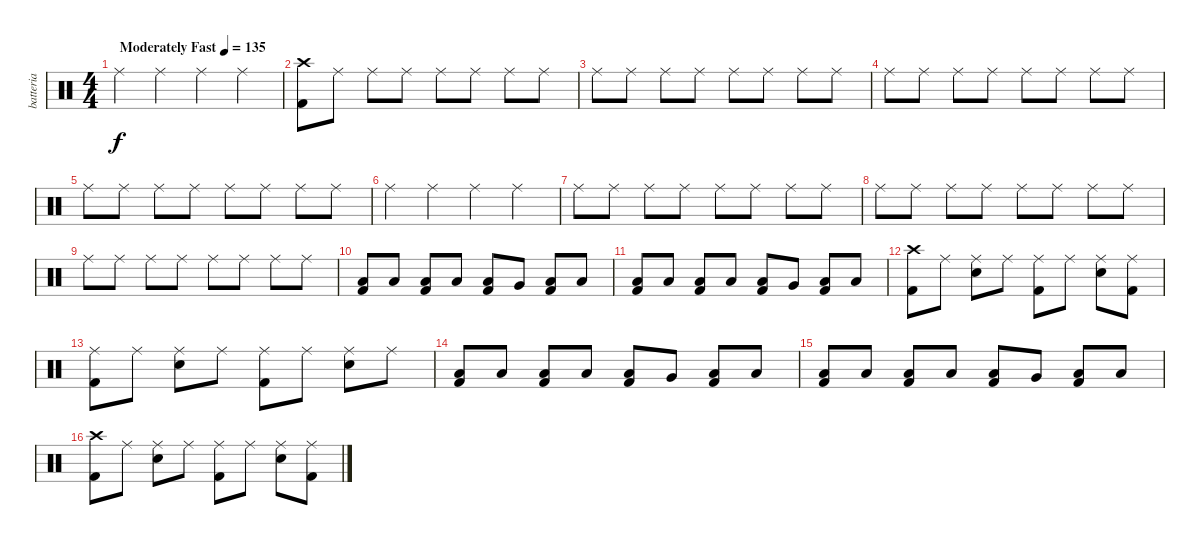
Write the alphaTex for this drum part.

\track ("batteria" "batteria") {instrument percussion}
\staff {score}
\articulation defaults
\ts (4 4)
\tempo (135 "Moderately Fast")
\clef neutral
\ks c "Ride (middle)".4{dy f} "Ride (middle)".4 "Ride (middle)".4 "Ride (middle)".4
|
("Crash high (hit)" "Kick (hit) 2").8 "Ride (middle)".8 "Ride (middle)".8 "Ride (middle)".8 "Ride (middle)".8 "Ride (middle)".8 "Ride (middle)".8 "Ride (middle)".8 |
"Ride (middle)".8 "Ride (middle)".8 "Ride (middle)".8 "Ride (middle)".8 "Ride (middle)".8 "Ride (middle)".8 "Ride (middle)".8 "Ride (middle)".8 |
"Ride (middle)".8 "Ride (middle)".8 "Ride (middle)".8 "Ride (middle)".8 "Ride (middle)".8 "Ride (middle)".8 "Ride (middle)".8 "Ride (middle)".8 |
"Ride (middle)".8 "Ride (middle)".8 "Ride (middle)".8 "Ride (middle)".8 "Ride (middle)".8 "Ride (middle)".8 "Ride (middle)".8 "Ride (middle)".8 |
"Ride (middle)".4 "Ride (middle)".4 "Ride (middle)".4 "Ride (middle)".4 |
"Ride (middle)".8 "Ride (middle)".8 "Ride (middle)".8 "Ride (middle)".8 "Ride (middle)".8 "Ride (middle)".8 "Ride (middle)".8 "Ride (middle)".8 |
"Ride (middle)".8 "Ride (middle)".8 "Ride (middle)".8 "Ride (middle)".8 "Ride (middle)".8 "Ride (middle)".8 "Ride (middle)".8 "Ride (middle)".8 |
"Ride (middle)".8 "Ride (middle)".8 "Ride (middle)".8 "Ride (middle)".8 "Ride (middle)".8 "Ride (middle)".8 "Ride (middle)".8 "Ride (middle)".8 |
("Low Floor Tom (hit)" "Kick (hit) 2").8 "Low Floor Tom (hit)".8 ("Low Floor Tom (hit)" "Kick (hit) 2").8 "Low Floor Tom (hit)".8 ("Low Floor Tom (hit)" "Kick (hit) 2").8 "Very Low Tom (hit)".8 ("Low Floor Tom (hit)" "Kick (hit) 2").8 "Low Floor Tom (hit)".8 |
("Low Floor Tom (hit)" "Kick (hit) 2").8 "Low Floor Tom (hit)".8 ("Low Floor Tom (hit)" "Kick (hit) 2").8 "Low Floor Tom (hit)".8 ("Low Floor Tom (hit)" "Kick (hit) 2").8 "Very Low Tom (hit)".8 ("Low Floor Tom (hit)" "Kick (hit) 2").8 "Low Floor Tom (hit)".8 |
("Crash high (hit)" "Kick (hit) 2").8 "Ride (middle)".8 ("Ride (middle)" "Electric Snare (hit)").8 "Ride (middle)".8 ("Ride (middle)" "Kick (hit) 2").8 "Ride (middle)".8 ("Ride (middle)" "Electric Snare (hit)").8 ("Ride (middle)" "Kick (hit) 2").8 |
("Ride (middle)" "Kick (hit) 2").8 "Ride (middle)".8 ("Ride (middle)" "Electric Snare (hit)").8 "Ride (middle)".8 ("Ride (middle)" "Kick (hit) 2").8 "Ride (middle)".8 ("Ride (middle)" "Electric Snare (hit)").8 "Ride (middle)".8 |
("Low Floor Tom (hit)" "Kick (hit) 2").8 "Low Floor Tom (hit)".8 ("Low Floor Tom (hit)" "Kick (hit) 2").8 "Low Floor Tom (hit)".8 ("Low Floor Tom (hit)" "Kick (hit) 2").8 "Very Low Tom (hit)".8 ("Low Floor Tom (hit)" "Kick (hit) 2").8 "Low Floor Tom (hit)".8 |
("Low Floor Tom (hit)" "Kick (hit) 2").8 "Low Floor Tom (hit)".8 ("Low Floor Tom (hit)" "Kick (hit) 2").8 "Low Floor Tom (hit)".8 ("Low Floor Tom (hit)" "Kick (hit) 2").8 "Very Low Tom (hit)".8 ("Low Floor Tom (hit)" "Kick (hit) 2").8 "Low Floor Tom (hit)".8 |
("Crash high (hit)" "Kick (hit) 2").8 "Ride (middle)".8 ("Ride (middle)" "Electric Snare (hit)").8 "Ride (middle)".8 ("Ride (middle)" "Kick (hit) 2").8 "Ride (middle)".8 ("Ride (middle)" "Electric Snare (hit)").8 ("Ride (middle)" "Kick (hit) 2").8
